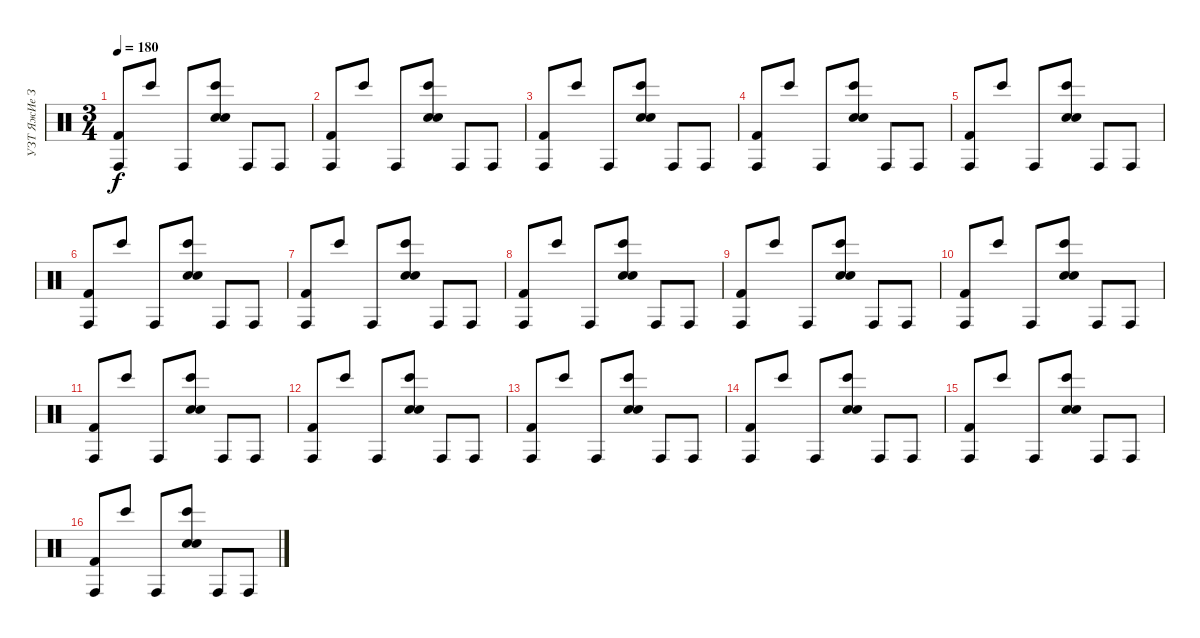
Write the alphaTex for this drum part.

\track ("УЗТ ЯжИе Зн" "УЗТ ЯжИе З") {instrument percussion}
\staff {score}
\articulation defaults
\ts (3 4)
\tempo 180
\clef neutral
\ks c
("Conga high (hit)" "Kick (hit) 2").8{dy f} "Bongo High (hit)".8 "Conga high (hit)".8 ("Bongo High (hit)" "Snare (hit) 2" "Hand Clap (hit)").8 "Conga high (hit)".8 "Conga high (hit)".8 |
("Conga high (hit)" "Kick (hit) 2").8 "Bongo High (hit)".8 "Conga high (hit)".8 ("Bongo High (hit)" "Snare (hit) 2" "Hand Clap (hit)").8 "Conga high (hit)".8 "Conga high (hit)".8 |
("Conga high (hit)" "Kick (hit) 2").8 "Bongo High (hit)".8 "Conga high (hit)".8 ("Bongo High (hit)" "Snare (hit) 2" "Hand Clap (hit)").8 "Conga high (hit)".8 "Conga high (hit)".8 |
("Conga high (hit)" "Kick (hit) 2").8 "Bongo High (hit)".8 "Conga high (hit)".8 ("Bongo High (hit)" "Snare (hit) 2" "Hand Clap (hit)").8 "Conga high (hit)".8 "Conga high (hit)".8 |
("Conga high (hit)" "Kick (hit) 2").8 "Bongo High (hit)".8 "Conga high (hit)".8 ("Bongo High (hit)" "Snare (hit) 2" "Hand Clap (hit)").8 "Conga high (hit)".8 "Conga high (hit)".8 |
("Conga high (hit)" "Kick (hit) 2").8 "Bongo High (hit)".8 "Conga high (hit)".8 ("Bongo High (hit)" "Snare (hit) 2" "Hand Clap (hit)").8 "Conga high (hit)".8 "Conga high (hit)".8 |
("Conga high (hit)" "Kick (hit) 2").8 "Bongo High (hit)".8 "Conga high (hit)".8 ("Bongo High (hit)" "Snare (hit) 2" "Hand Clap (hit)").8 "Conga high (hit)".8 "Conga high (hit)".8 |
("Conga high (hit)" "Kick (hit) 2").8 "Bongo High (hit)".8 "Conga high (hit)".8 ("Bongo High (hit)" "Snare (hit) 2" "Hand Clap (hit)").8 "Conga high (hit)".8 "Conga high (hit)".8 |
("Conga high (hit)" "Kick (hit) 2").8 "Bongo High (hit)".8 "Conga high (hit)".8 ("Bongo High (hit)" "Snare (hit) 2" "Hand Clap (hit)").8 "Conga high (hit)".8 "Conga high (hit)".8 |
("Conga high (hit)" "Kick (hit) 2").8 "Bongo High (hit)".8 "Conga high (hit)".8 ("Bongo High (hit)" "Snare (hit) 2" "Hand Clap (hit)").8 "Conga high (hit)".8 "Conga high (hit)".8 |
("Conga high (hit)" "Kick (hit) 2").8 "Bongo High (hit)".8 "Conga high (hit)".8 ("Bongo High (hit)" "Snare (hit) 2" "Hand Clap (hit)").8 "Conga high (hit)".8 "Conga high (hit)".8 |
("Conga high (hit)" "Kick (hit) 2").8 "Bongo High (hit)".8 "Conga high (hit)".8 ("Bongo High (hit)" "Snare (hit) 2" "Hand Clap (hit)").8 "Conga high (hit)".8 "Conga high (hit)".8 |
("Conga high (hit)" "Kick (hit) 2").8 "Bongo High (hit)".8 "Conga high (hit)".8 ("Bongo High (hit)" "Snare (hit) 2" "Hand Clap (hit)").8 "Conga high (hit)".8 "Conga high (hit)".8 |
("Conga high (hit)" "Kick (hit) 2").8 "Bongo High (hit)".8 "Conga high (hit)".8 ("Bongo High (hit)" "Snare (hit) 2" "Hand Clap (hit)").8 "Conga high (hit)".8 "Conga high (hit)".8 |
("Conga high (hit)" "Kick (hit) 2").8 "Bongo High (hit)".8 "Conga high (hit)".8 ("Bongo High (hit)" "Snare (hit) 2" "Hand Clap (hit)").8 "Conga high (hit)".8 "Conga high (hit)".8 |
("Conga high (hit)" "Kick (hit) 2").8 "Bongo High (hit)".8 "Conga high (hit)".8 ("Bongo High (hit)" "Snare (hit) 2" "Hand Clap (hit)").8 "Conga high (hit)".8 "Conga high (hit)".8
